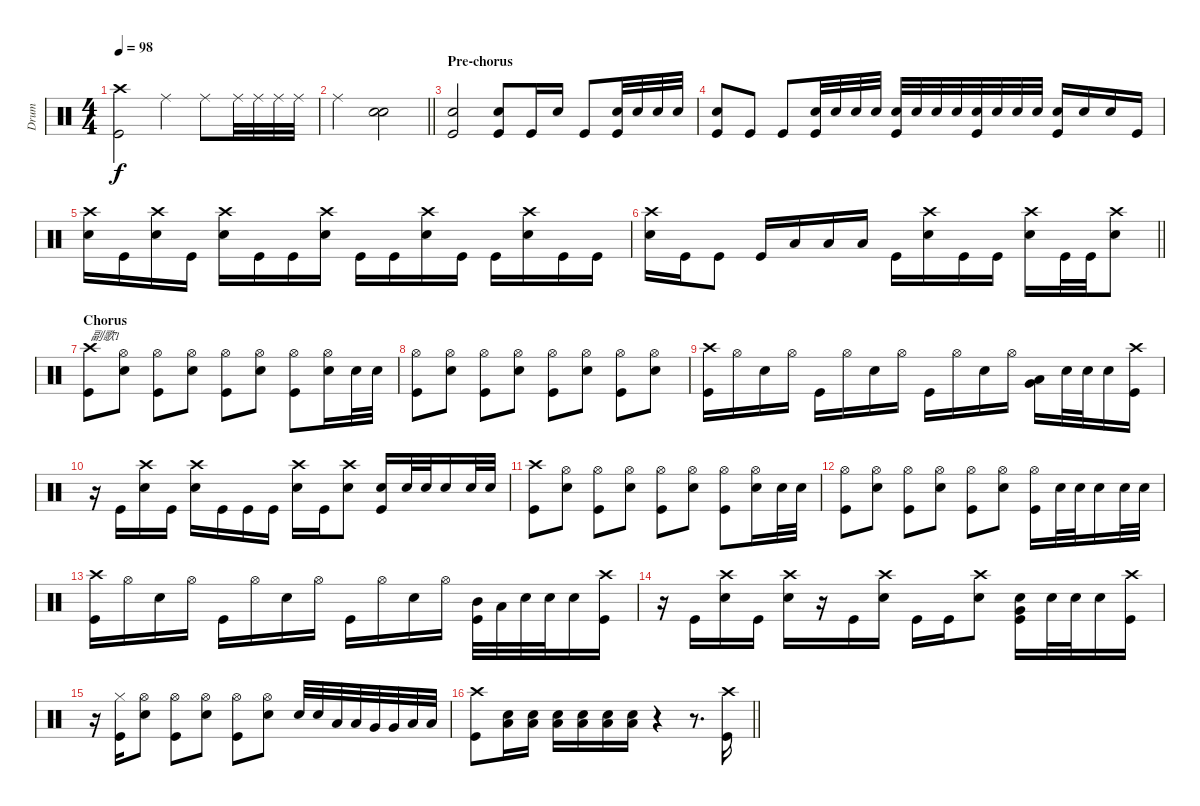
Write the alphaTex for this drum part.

\track ("Drum" "Drum") {instrument percussion}
\staff {score}
\articulation defaults
\ts (4 4)
\tempo 98
\clef neutral
\ks c
("Crash high (hit)" "Kick (hit)").2{dy f} "Ride (middle)".4 "Ride (middle)".8 "Ride (middle)".32 "Ride (middle)".32 "Ride (middle)".32 "Ride (middle)".32 |
\barLineRight lightlight "Ride (middle)".2
("Snare (hit) 2" "Snare (hit) 2").2 |
\section ("" "Pre-chorus")
("Snare (hit) 2" "Kick (hit)").2 ("Snare (hit) 2" "Kick (hit)").8 "Kick (hit)".16 "Snare (hit) 2".16 "Kick (hit)".8 ("Kick (hit)" "Snare (hit) 2").32 "Snare (hit) 2".32 "Snare (hit) 2".32 "Snare (hit) 2".32 |
("Snare (hit) 2" "Kick (hit)").8 "Kick (hit)".8 "Kick (hit)".8 ("Kick (hit)" "Snare (hit) 2").32 "Snare (hit) 2".32 "Snare (hit) 2".32 "Snare (hit) 2".32 ("Kick (hit)" "Snare (hit) 2").32 "Snare (hit) 2".32 "Snare (hit) 2".32 "Snare (hit) 2".32 ("Kick (hit)" "Snare (hit) 2").32 "Snare (hit) 2".32 "Snare (hit) 2".32 "Snare (hit) 2".32 ("Kick (hit)" "Snare (hit) 2").16 "Snare (hit) 2".16 "Snare (hit) 2".16 "Kick (hit)".16 |
("Crash high (hit)" "Snare (hit) 2").16 "Kick (hit)".16 ("Snare (hit) 2" "Crash high (hit)").16 "Kick (hit)".16 ("Crash high (hit)" "Snare (hit) 2").16 "Kick (hit)".16 "Kick (hit)".16 ("Snare (hit) 2" "Crash high (hit)").16 "Kick (hit)".16 "Kick (hit)".16 ("Snare (hit) 2" "Crash high (hit)").16 "Kick (hit)".16 "Kick (hit)".16 ("Snare (hit) 2" "Crash high (hit)").16 "Kick (hit)".16 "Kick (hit)".16 |
\barLineRight lightlight
("Snare (hit) 2" "Crash high (hit)").16 "Kick (hit)".16 "Kick (hit)".8 "Kick (hit)".16 "Low Floor Tom (hit)".16 "Low Floor Tom (hit)".16 "Low Floor Tom (hit)".16 "Kick (hit)".16 ("Snare (hit) 2" "Crash high (hit)").16 "Kick (hit)".16 "Kick (hit)".16 ("Snare (hit) 2" "Crash high (hit)").16 "Kick (hit)".32 "Kick (hit)".32 ("Snare (hit) 2" "Crash high (hit)").8 |
\section ("" "Chorus")
("Crash high (hit)" "Kick (hit)").8{txt "副歌1"} ("Hi-Hat (open)" "Snare (hit) 2").8 ("Hi-Hat (open)" "Kick (hit)").8 ("Snare (hit) 2" "Hi-Hat (open)").8 ("Hi-Hat (open)" "Kick (hit)").8 ("Snare (hit) 2" "Hi-Hat (open)").8 ("Hi-Hat (open)" "Kick (hit)").8 ("Snare (hit) 2" "Hi-Hat (open)").16 "Snare (hit) 2".32 "Snare (hit) 2".32 |
("Hi-Hat (open)" "Kick (hit)").8 ("Snare (hit) 2" "Hi-Hat (open)").8 ("Hi-Hat (open)" "Kick (hit)").8 ("Snare (hit) 2" "Hi-Hat (open)").8 ("Hi-Hat (open)" "Kick (hit)").8 ("Snare (hit) 2" "Hi-Hat (open)").8 ("Hi-Hat (open)" "Kick (hit)").8 ("Snare (hit) 2" "Hi-Hat (open)").8 |
("Crash high (hit)" "Kick (hit)").16 "Hi-Hat (open)".16 "Snare (hit) 2".16 "Hi-Hat (open)".16 "Kick (hit)".16 "Hi-Hat (open)".16 "Snare (hit) 2".16 "Hi-Hat (open)".16 "Kick (hit)".16 "Hi-Hat (open)".16 "Snare (hit) 2".16 "Hi-Hat (open)".16 ("Low Tom (hit)" "Very Low Tom (hit)").16 "Snare (hit) 2".32 "Snare (hit) 2".32 "Snare (hit) 2".16 ("Kick (hit)" "Crash high (hit)").16 |
r.16 "Kick (hit)".16 ("Snare (hit) 2" "Crash high (hit)").16 "Kick (hit)".16 ("Snare (hit) 2" "Crash high (hit)").16 "Kick (hit)".16 "Kick (hit)".16 "Kick (hit)".16 ("Snare (hit) 2" "Crash high (hit)").16 "Kick (hit)".16 ("Snare (hit) 2" "Crash high (hit)").8 ("Snare (hit) 2" "Kick (hit)").16 "Snare (hit) 2".32 "Snare (hit) 2".32 "Snare (hit) 2".16 "Snare (hit) 2".32 "Snare (hit) 2".32 |
("Crash high (hit)" "Kick (hit)").8 ("Snare (hit) 2" "Hi-Hat (open)").8 ("Kick (hit)" "Hi-Hat (open)").8 ("Snare (hit) 2" "Hi-Hat (open)").8 ("Kick (hit)" "Hi-Hat (open)").8 ("Snare (hit) 2" "Hi-Hat (open)").8 ("Hi-Hat (open)" "Kick (hit)").8 ("Snare (hit) 2" "Hi-Hat (open)").16 "Snare (hit) 2".32 "Snare (hit) 2".32 |
("Kick (hit)" "Hi-Hat (open)").8 ("Snare (hit) 2" "Hi-Hat (open)").8 ("Kick (hit)" "Hi-Hat (open)").8 ("Snare (hit) 2" "Hi-Hat (open)").8 ("Kick (hit)" "Hi-Hat (open)").8 ("Snare (hit) 2" "Hi-Hat (open)").8 ("Kick (hit)" "Hi-Hat (open)").16 "Snare (hit) 2".32 "Snare (hit) 2".32 "Snare (hit) 2".16 "Snare (hit) 2".32 "Snare (hit) 2".32 |
("Crash high (hit)" "Kick (hit)").16 "Hi-Hat (open)".16 "Snare (hit) 2".16 "Hi-Hat (open)".16 "Kick (hit)".16 "Hi-Hat (open)".16 "Snare (hit) 2".16 "Hi-Hat (open)".16 "Kick (hit)".16 "Hi-Hat (open)".16 "Snare (hit) 2".16 "Hi-Hat (open)".16 ("Mid Tom (hit)" "Kick (hit)").32 "Low Tom (hit)".32 "Snare (hit) 2".32 "Snare (hit) 2".32 "Snare (hit) 2".16 ("Kick (hit)" "Crash high (hit)").16 |
r.16 "Kick (hit)".16 ("Snare (hit) 2" "Crash high (hit)").16 "Kick (hit)".16 ("Snare (hit) 2" "Crash high (hit)").16 r.16 "Kick (hit)".16 ("Snare (hit) 2" "Crash high (hit)").16 "Kick (hit)".16 "Kick (hit)".16 ("Snare (hit) 2" "Crash high (hit)").8 ("Snare (hit) 2" "Kick (hit)" "Very Low Tom (hit)").16 "Snare (hit) 2".32 "Snare (hit) 2".32 "Snare (hit) 2".16 ("Kick (hit)" "Crash high (hit)").16 |
r.16 ("Kick (hit)" "Hi-Hat (closed)").16 ("Snare (hit) 2" "Hi-Hat (open)").8 ("Hi-Hat (open)" "Kick (hit)").8 ("Snare (hit) 2" "Hi-Hat (open)").8 ("Hi-Hat (open)" "Kick (hit)").8 ("Snare (hit) 2" "Hi-Hat (open)").8 "Snare (hit) 2".32 "Snare (hit) 2".32 "Low Tom (hit)".32 "Low Tom (hit)".32 "Very Low Tom (hit)".32 "Very Low Tom (hit)".32 "Low Floor Tom (hit)".32 "Low Floor Tom (hit)".32 |
\barLineRight lightlight
("Crash high (hit)" "Kick (hit)").8 ("Snare (hit) 2" "Low Floor Tom (hit)").16 ("Snare (hit) 2" "Low Floor Tom (hit)").16 ("Snare (hit) 2" "Low Floor Tom (hit)").16 ("Snare (hit) 2" "Low Floor Tom (hit)").16 ("Snare (hit) 2" "Low Floor Tom (hit)").16 ("Snare (hit) 2" "Low Floor Tom (hit)").16 r.4 r.8{d} ("Kick (hit)" "Crash high (hit)").16
